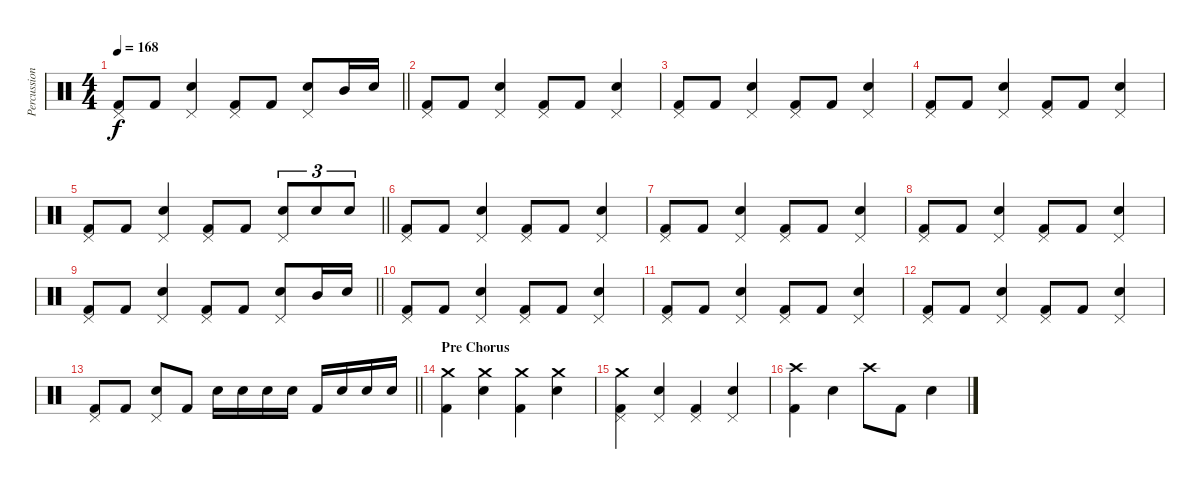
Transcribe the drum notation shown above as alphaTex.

\track ("Percussion" "Percussion") {instrument percussion}
\staff {score}
\articulation defaults
\ts (4 4)
\tempo 168
\clef neutral
\barLineRight lightlight
\ks c
("Pedal Hi-Hat (hit)" "Kick (hit) 2").8{dy f} "Kick (hit) 2".8 ("Pedal Hi-Hat (hit)" "Electric Snare (hit)").4 ("Pedal Hi-Hat (hit)" "Kick (hit) 2").8 "Kick (hit) 2".8 ("Pedal Hi-Hat (hit)" "Electric Snare (hit)").8 "Mid Tom (hit)".16 "Electric Snare (hit)".16 |
("Pedal Hi-Hat (hit)" "Kick (hit) 2").8 "Kick (hit) 2".8 ("Pedal Hi-Hat (hit)" "Electric Snare (hit)").4 ("Pedal Hi-Hat (hit)" "Kick (hit) 2").8 "Kick (hit) 2".8 ("Pedal Hi-Hat (hit)" "Electric Snare (hit)").4 |
("Pedal Hi-Hat (hit)" "Kick (hit) 2").8 "Kick (hit) 2".8 ("Pedal Hi-Hat (hit)" "Electric Snare (hit)").4 ("Pedal Hi-Hat (hit)" "Kick (hit) 2").8 "Kick (hit) 2".8 ("Pedal Hi-Hat (hit)" "Electric Snare (hit)").4 |
("Pedal Hi-Hat (hit)" "Kick (hit) 2").8 "Kick (hit) 2".8 ("Pedal Hi-Hat (hit)" "Electric Snare (hit)").4 ("Pedal Hi-Hat (hit)" "Kick (hit) 2").8 "Kick (hit) 2".8 ("Pedal Hi-Hat (hit)" "Electric Snare (hit)").4 |
\barLineRight lightlight
("Pedal Hi-Hat (hit)" "Kick (hit) 2").8 "Kick (hit) 2".8 ("Pedal Hi-Hat (hit)" "Electric Snare (hit)").4 ("Pedal Hi-Hat (hit)" "Kick (hit) 2").8 "Kick (hit) 2".8 ("Pedal Hi-Hat (hit)" "Electric Snare (hit)").8{tu (3 2)} "Electric Snare (hit)".8{tu (3 2)} "Electric Snare (hit)".8{tu (3 2)} |
("Pedal Hi-Hat (hit)" "Kick (hit) 2").8 "Kick (hit) 2".8 ("Pedal Hi-Hat (hit)" "Electric Snare (hit)").4 ("Pedal Hi-Hat (hit)" "Kick (hit) 2").8 "Kick (hit) 2".8 ("Pedal Hi-Hat (hit)" "Electric Snare (hit)").4 |
("Pedal Hi-Hat (hit)" "Kick (hit) 2").8 "Kick (hit) 2".8 ("Pedal Hi-Hat (hit)" "Electric Snare (hit)").4 ("Pedal Hi-Hat (hit)" "Kick (hit) 2").8 "Kick (hit) 2".8 ("Pedal Hi-Hat (hit)" "Electric Snare (hit)").4 |
("Pedal Hi-Hat (hit)" "Kick (hit) 2").8 "Kick (hit) 2".8 ("Pedal Hi-Hat (hit)" "Electric Snare (hit)").4 ("Pedal Hi-Hat (hit)" "Kick (hit) 2").8 "Kick (hit) 2".8 ("Pedal Hi-Hat (hit)" "Electric Snare (hit)").4 |
\barLineRight lightlight
("Pedal Hi-Hat (hit)" "Kick (hit) 2").8 "Kick (hit) 2".8 ("Pedal Hi-Hat (hit)" "Electric Snare (hit)").4 ("Pedal Hi-Hat (hit)" "Kick (hit) 2").8 "Kick (hit) 2".8 ("Pedal Hi-Hat (hit)" "Electric Snare (hit)").8 "Mid Tom (hit)".16 "Electric Snare (hit)".16 |
("Pedal Hi-Hat (hit)" "Kick (hit) 2").8 "Kick (hit) 2".8 ("Pedal Hi-Hat (hit)" "Electric Snare (hit)").4 ("Pedal Hi-Hat (hit)" "Kick (hit) 2").8 "Kick (hit) 2".8 ("Pedal Hi-Hat (hit)" "Electric Snare (hit)").4 |
("Pedal Hi-Hat (hit)" "Kick (hit) 2").8 "Kick (hit) 2".8 ("Pedal Hi-Hat (hit)" "Electric Snare (hit)").4 ("Pedal Hi-Hat (hit)" "Kick (hit) 2").8 "Kick (hit) 2".8 ("Pedal Hi-Hat (hit)" "Electric Snare (hit)").4 |
("Pedal Hi-Hat (hit)" "Kick (hit) 2").8 "Kick (hit) 2".8 ("Pedal Hi-Hat (hit)" "Electric Snare (hit)").4 ("Pedal Hi-Hat (hit)" "Kick (hit) 2").8 "Kick (hit) 2".8 ("Pedal Hi-Hat (hit)" "Electric Snare (hit)").4 |
\barLineRight lightlight
("Pedal Hi-Hat (hit)" "Kick (hit) 2").8 "Kick (hit) 2".8 ("Pedal Hi-Hat (hit)" "Electric Snare (hit)").8 "Kick (hit) 2".8 "Electric Snare (hit)".16 "Electric Snare (hit)".16 "Electric Snare (hit)".16 "Electric Snare (hit)".16 "Kick (hit) 2".16 "Electric Snare (hit)".16 "Electric Snare (hit)".16 "Electric Snare (hit)".16 |
\section ("" "Pre Chorus")
("Crash medium (hit)" "Kick (hit) 2").4 ("Crash medium (hit)" "Electric Snare (hit)").4 ("Crash medium (hit)" "Kick (hit) 2").4 ("Crash medium (hit)" "Electric Snare (hit)").4 |
("Pedal Hi-Hat (hit)" "Crash medium (hit)" "Kick (hit) 2").4 ("Pedal Hi-Hat (hit)" "Electric Snare (hit)").4 ("Pedal Hi-Hat (hit)" "Kick (hit) 2").4 ("Pedal Hi-Hat (hit)" "Electric Snare (hit)").4 |
("Crash high (hit)" "Kick (hit) 2").4 "Electric Snare (hit)".4 "Crash high (hit)".8 "Kick (hit) 2".8 "Electric Snare (hit)".4
